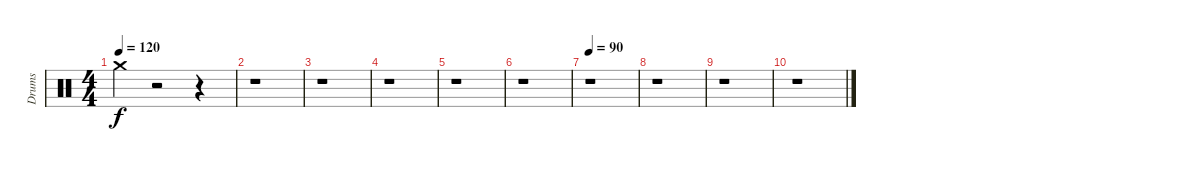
\track ("Drums" "Drums") {instrument percussion}
\staff {score}
\articulation defaults
\ts (4 4)
\tempo 120
\clef neutral
\ks c "Crash medium (hit)".4{dy f}
r.2 r.4 |
r.1 |
r.1 |
r.1 |
r.1 |
r.1 |
\tempo 90
r.1 |
r.1 |
r.1 |
r.1
